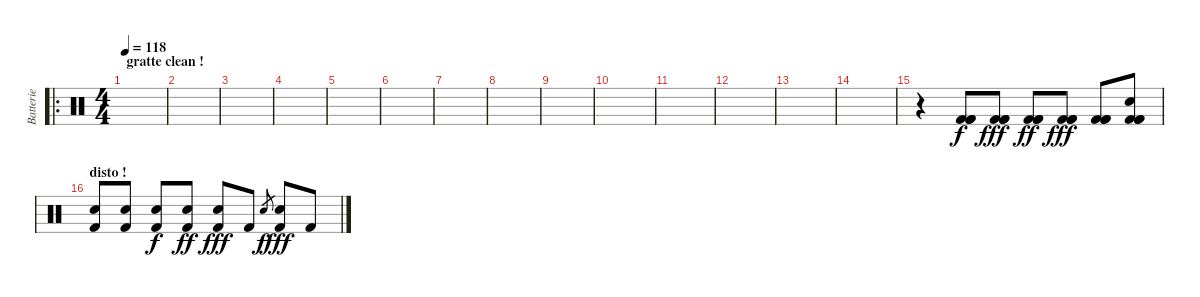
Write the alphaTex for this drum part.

\track ("Batterie" "Batterie") {instrument percussion}
\staff {score}
\articulation defaults
\ro
\ts (4 4)
\section ("" "gratte clean !")
\tempo 118
\clef neutral
\ks c
|
|
|
|
|
|
|
|
|
|
|
|
|
|
r.4 ("Kick (hit) 2" "Kick (hit) 2" "Kick (hit) 2").8 ("Kick (hit) 2" "Kick (hit) 2" "Kick (hit) 2").8{dy fff} ("Kick (hit) 2" "Kick (hit) 2" "Kick (hit) 2").8{dy ff} ("Kick (hit) 2" "Kick (hit) 2" "Kick (hit) 2").8{dy fff} ("Kick (hit) 2" "Kick (hit) 2" "Kick (hit) 2").8 ("Snare (hit) 2" "Kick (hit) 2" "Kick (hit) 2" "Kick (hit) 2").8 |
\section ("" "disto !")
("Snare (hit) 2" "Kick (hit) 2").8 ("Snare (hit) 2" "Kick (hit) 2").8 ("Snare (hit) 2" "Kick (hit) 2").8{dy f} ("Snare (hit) 2" "Kick (hit) 2").8{dy ff} ("Snare (hit) 2" "Kick (hit) 2").8{dy fff} "Kick (hit) 2".8 "Snare (hit) 2".8{gr dy f} ("Snare (hit) 2" "Kick (hit) 2").8{dy fff} "Kick (hit) 2".8
